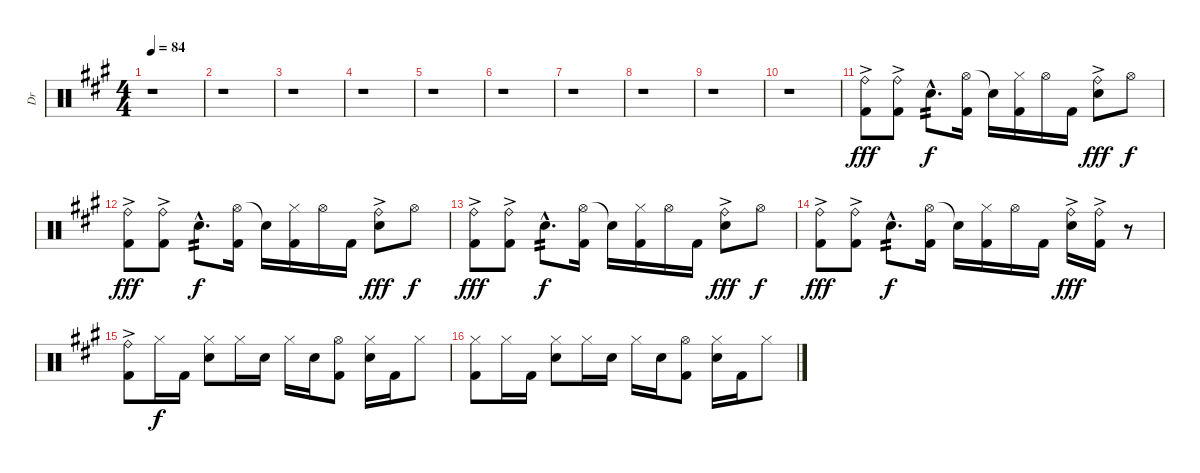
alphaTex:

\track ("Dr" "Dr") {instrument percussion}
\staff {score}
\articulation defaults
\ts (4 4)
\tempo 84
\clef neutral
\ks a
r.1{dy fff} |
r.1 |
r.1 |
r.1 |
r.1 |
r.1 |
r.1 |
r.1 |
r.1 |
r.1 |
("Ride (bell)"{ac} "Kick (hit) 2"{ac}).8 ("Ride (bell)"{ac} "Kick (hit) 2"{ac}).8 "Electric Snare (hit)"{hac}.8{d tp 2 dy f} ("Hi-Hat (open)" "Kick (hit) 2").16 "Snare (hit)"{t}.16 ("Hi-Hat (closed)" "Kick (hit) 2").16 "Hi-Hat (open)".16 "Kick (hit) 2".16 ("Ride (bell)"{ac} "Electric Snare (hit)"{ac}).8{dy fff} "Hi-Hat (open)".8{dy f} |
("Ride (bell)"{ac} "Kick (hit) 2"{ac}).8{dy fff} ("Ride (bell)"{ac} "Kick (hit) 2"{ac}).8 "Electric Snare (hit)"{hac}.8{d tp 2 dy f} ("Hi-Hat (open)" "Kick (hit) 2").16 "Snare (hit)"{t}.16 ("Hi-Hat (closed)" "Kick (hit) 2").16 "Hi-Hat (open)".16 "Kick (hit) 2".16 ("Ride (bell)"{ac} "Electric Snare (hit)"{ac}).8{dy fff} "Hi-Hat (open)".8{dy f} |
("Ride (bell)"{ac} "Kick (hit) 2"{ac}).8{dy fff} ("Ride (bell)"{ac} "Kick (hit) 2"{ac}).8 "Electric Snare (hit)"{hac}.8{d tp 2 dy f} ("Hi-Hat (open)" "Kick (hit) 2").16 "Snare (hit)"{t}.16 ("Hi-Hat (closed)" "Kick (hit) 2").16 "Hi-Hat (open)".16 "Kick (hit) 2".16 ("Ride (bell)"{ac} "Electric Snare (hit)"{ac}).8{dy fff} "Hi-Hat (open)".8{dy f} |
("Ride (bell)"{ac} "Kick (hit) 2"{ac}).8{dy fff} ("Ride (bell)"{ac} "Kick (hit) 2"{ac}).8 "Electric Snare (hit)"{hac}.8{d tp 2 dy f} ("Hi-Hat (open)" "Kick (hit) 2").16 "Snare (hit)"{t}.16 ("Hi-Hat (closed)" "Kick (hit) 2").16 "Hi-Hat (open)".16 "Kick (hit) 2".16 ("Ride (bell)"{ac} "Electric Snare (hit)"{ac}).16{dy fff} ("Ride (bell)"{ac} "Kick (hit) 2"{ac}).16 r.8 |
("Ride (bell)"{ac} "Kick (hit) 2"{ac}).8 "Hi-Hat (closed)".16{dy f} "Kick (hit) 2".16 ("Hi-Hat (closed)" "Electric Snare (hit)").8 "Hi-Hat (closed)".16 "Electric Snare (hit)".16 "Hi-Hat (closed)".16 "Electric Snare (hit)".16 ("Hi-Hat (open)" "Kick (hit) 2").8 ("Hi-Hat (closed)" "Electric Snare (hit)").16 "Kick (hit) 2".16 "Hi-Hat (closed)".8 |
("Hi-Hat (closed)" "Kick (hit) 2").8 "Hi-Hat (closed)".16 "Kick (hit) 2".16 ("Hi-Hat (closed)" "Electric Snare (hit)").8 "Hi-Hat (closed)".16 "Electric Snare (hit)".16 "Hi-Hat (closed)".16 "Electric Snare (hit)".16 ("Hi-Hat (open)" "Kick (hit) 2").8 ("Hi-Hat (closed)" "Electric Snare (hit)").16 "Kick (hit) 2".16 "Hi-Hat (closed)".8
